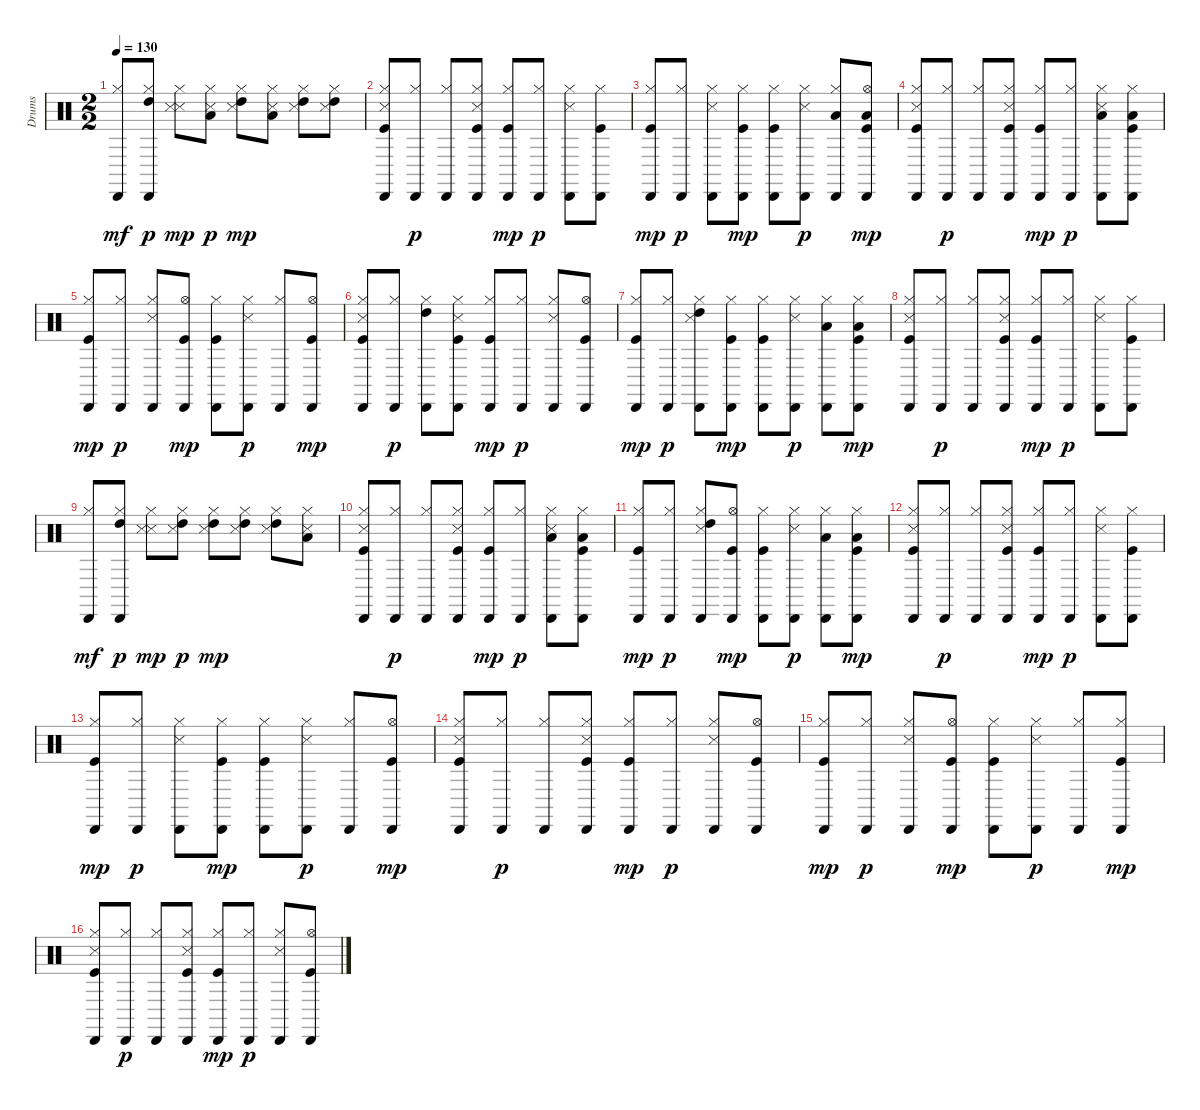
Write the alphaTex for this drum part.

\track ("Drums" "Drums") {instrument percussion}
\staff {score}
\articulation defaults
\ts (2 2)
\tempo 130
\clef neutral
\ks c
("Hi-Hat (closed)" "Cabasa (hit)").8{dy mf} ("Hi-Hat (closed)" "High Tom (hit)" "Cabasa (hit)").8{dy p} ("Snare (side stick) 3" "Snare (side stick) 3" "Hi-Hat (closed)").8{dy mp} ("Snare (side stick) 3" "Hi-Hat (closed)" "Low Tom (hit)").8{dy p} ("Snare (side stick) 3" "Hi-Hat (closed)" "High Tom (hit)").8{dy mp} ("Snare (side stick) 3" "Hi-Hat (closed)" "Low Tom (hit)").8 ("Snare (side stick) 3" "Hi-Hat (closed)" "High Tom (hit)").8 ("Snare (side stick) 3" "Hi-Hat (closed)" "High Tom (hit)").8 |
("Kick (hit)" "Snare (side stick) 3" "Hi-Hat (closed)" "Cabasa (hit)").8 ("Hi-Hat (closed)" "Cabasa (hit)").8{dy p} ("Hi-Hat (closed)" "Cabasa (hit)").8 ("Kick (hit)" "Snare (side stick) 3" "Hi-Hat (closed)" "Cabasa (hit)").8 ("Kick (hit)" "Hi-Hat (closed)" "Cabasa (hit)").8{dy mp} ("Hi-Hat (closed)" "Cabasa (hit)").8{dy p} ("Snare (side stick) 3" "Hi-Hat (closed)" "Cabasa (hit)").8 ("Kick (hit)" "Hi-Hat (closed)" "Cabasa (hit)").8 |
("Kick (hit)" "Hi-Hat (closed)" "Cabasa (hit)").8{dy mp} ("Hi-Hat (closed)" "Cabasa (hit)").8{dy p} ("Snare (side stick) 3" "Hi-Hat (closed)" "Cabasa (hit)").8 ("Kick (hit)" "Hi-Hat (closed)" "Cabasa (hit)").8{dy mp} ("Kick (hit)" "Hi-Hat (closed)" "Cabasa (hit)").8 ("Snare (side stick) 3" "Hi-Hat (closed)" "Cabasa (hit)").8{dy p} ("Hi-Hat (closed)" "Low Tom (hit)" "Cabasa (hit)").8 ("Kick (hit)" "Low Tom (hit)" "Hi-Hat (open)" "Cabasa (hit)").8{dy mp} |
("Kick (hit)" "Snare (side stick) 3" "Hi-Hat (closed)" "Cabasa (hit)").8 ("Hi-Hat (closed)" "Cabasa (hit)").8{dy p} ("Hi-Hat (closed)" "Cabasa (hit)").8 ("Kick (hit)" "Snare (side stick) 3" "Hi-Hat (closed)" "Cabasa (hit)").8 ("Kick (hit)" "Hi-Hat (closed)" "Cabasa (hit)").8{dy mp} ("Hi-Hat (closed)" "Cabasa (hit)").8{dy p} ("Snare (side stick) 3" "Hi-Hat (closed)" "Low Tom (hit)" "Cabasa (hit)").8 ("Kick (hit)" "Hi-Hat (closed)" "Low Tom (hit)" "Cabasa (hit)").8 |
("Kick (hit)" "Hi-Hat (closed)" "Cabasa (hit)").8{dy mp} ("Hi-Hat (closed)" "Cabasa (hit)").8{dy p} ("Snare (side stick) 3" "Hi-Hat (closed)" "Cabasa (hit)").8 ("Kick (hit)" "Hi-Hat (open)" "Cabasa (hit)").8{dy mp} ("Kick (hit)" "Hi-Hat (closed)" "Cabasa (hit)").8 ("Snare (side stick) 3" "Hi-Hat (closed)" "Cabasa (hit)").8{dy p} ("Hi-Hat (closed)" "Cabasa (hit)").8 ("Kick (hit)" "Hi-Hat (open)" "Cabasa (hit)").8{dy mp} |
("Kick (hit)" "Snare (side stick) 3" "Hi-Hat (closed)" "Cabasa (hit)").8 ("Hi-Hat (closed)" "Cabasa (hit)").8{dy p} ("Hi-Hat (closed)" "High Tom (hit)" "Cabasa (hit)").8 ("Kick (hit)" "Snare (side stick) 3" "Hi-Hat (closed)" "Cabasa (hit)").8 ("Kick (hit)" "Hi-Hat (closed)" "Cabasa (hit)").8{dy mp} ("Hi-Hat (closed)" "Cabasa (hit)").8{dy p} ("Snare (side stick) 3" "Hi-Hat (closed)" "Cabasa (hit)").8 ("Kick (hit)" "Hi-Hat (open)" "Cabasa (hit)").8 |
("Kick (hit)" "Hi-Hat (closed)" "Cabasa (hit)").8{dy mp} ("Hi-Hat (closed)" "Cabasa (hit)").8{dy p} ("Snare (side stick) 3" "Hi-Hat (closed)" "High Tom (hit)" "Cabasa (hit)").8 ("Kick (hit)" "Hi-Hat (closed)" "Cabasa (hit)").8{dy mp} ("Kick (hit)" "Hi-Hat (closed)" "Cabasa (hit)").8 ("Snare (side stick) 3" "Hi-Hat (closed)" "Cabasa (hit)").8{dy p} ("Hi-Hat (closed)" "Low Tom (hit)" "Cabasa (hit)").8 ("Kick (hit)" "Hi-Hat (closed)" "Low Tom (hit)" "Cabasa (hit)").8{dy mp} |
("Kick (hit)" "Snare (side stick) 3" "Hi-Hat (closed)" "Cabasa (hit)").8 ("Hi-Hat (closed)" "Cabasa (hit)").8{dy p} ("Hi-Hat (closed)" "Cabasa (hit)").8 ("Kick (hit)" "Snare (side stick) 3" "Hi-Hat (closed)" "Cabasa (hit)").8 ("Kick (hit)" "Hi-Hat (closed)" "Cabasa (hit)").8{dy mp} ("Hi-Hat (closed)" "Cabasa (hit)").8{dy p} ("Snare (side stick) 3" "Hi-Hat (closed)" "Cabasa (hit)").8 ("Kick (hit)" "Hi-Hat (closed)" "Cabasa (hit)").8 |
("Hi-Hat (closed)" "Cabasa (hit)").8{dy mf} ("Hi-Hat (closed)" "High Tom (hit)" "Cabasa (hit)").8{dy p} ("Snare (side stick) 3" "Snare (side stick) 3" "Hi-Hat (closed)").8{dy mp} ("Snare (side stick) 3" "Hi-Hat (closed)" "High Tom (hit)").8{dy p} ("Snare (side stick) 3" "Hi-Hat (closed)" "High Tom (hit)").8{dy mp} ("Snare (side stick) 3" "Hi-Hat (closed)" "High Tom (hit)").8 ("Snare (side stick) 3" "Hi-Hat (closed)" "High Tom (hit)").8 ("Snare (side stick) 3" "Hi-Hat (closed)" "Low Tom (hit)").8 |
("Kick (hit)" "Snare (side stick) 3" "Hi-Hat (closed)" "Cabasa (hit)").8 ("Hi-Hat (closed)" "Cabasa (hit)").8{dy p} ("Hi-Hat (closed)" "Cabasa (hit)").8 ("Kick (hit)" "Snare (side stick) 3" "Hi-Hat (closed)" "Cabasa (hit)").8 ("Kick (hit)" "Hi-Hat (closed)" "Cabasa (hit)").8{dy mp} ("Hi-Hat (closed)" "Cabasa (hit)").8{dy p} ("Snare (side stick) 3" "Hi-Hat (closed)" "Low Tom (hit)" "Cabasa (hit)").8 ("Kick (hit)" "Hi-Hat (closed)" "Low Tom (hit)" "Cabasa (hit)").8 |
("Kick (hit)" "Hi-Hat (closed)" "Cabasa (hit)").8{dy mp} ("Hi-Hat (closed)" "Cabasa (hit)").8{dy p} ("Snare (side stick) 3" "Hi-Hat (closed)" "High Tom (hit)" "Cabasa (hit)").8 ("Kick (hit)" "Hi-Hat (open)" "Cabasa (hit)").8{dy mp} ("Kick (hit)" "Hi-Hat (closed)" "Cabasa (hit)").8 ("Snare (side stick) 3" "Hi-Hat (closed)" "Cabasa (hit)").8{dy p} ("Hi-Hat (closed)" "Low Tom (hit)" "Cabasa (hit)").8 ("Kick (hit)" "Hi-Hat (closed)" "Low Tom (hit)" "Cabasa (hit)").8{dy mp} |
("Kick (hit)" "Snare (side stick) 3" "Hi-Hat (closed)" "Cabasa (hit)").8 ("Hi-Hat (closed)" "Cabasa (hit)").8{dy p} ("Hi-Hat (closed)" "Cabasa (hit)").8 ("Kick (hit)" "Snare (side stick) 3" "Hi-Hat (closed)" "Cabasa (hit)").8 ("Kick (hit)" "Hi-Hat (closed)" "Cabasa (hit)").8{dy mp} ("Hi-Hat (closed)" "Cabasa (hit)").8{dy p} ("Snare (side stick) 3" "Hi-Hat (closed)" "Cabasa (hit)").8 ("Kick (hit)" "Hi-Hat (closed)" "Cabasa (hit)").8 |
("Kick (hit)" "Hi-Hat (closed)" "Cabasa (hit)").8{dy mp} ("Hi-Hat (closed)" "Cabasa (hit)").8{dy p} ("Snare (side stick) 3" "Hi-Hat (closed)" "Cabasa (hit)").8 ("Kick (hit)" "Hi-Hat (closed)" "Cabasa (hit)").8{dy mp} ("Kick (hit)" "Hi-Hat (closed)" "Cabasa (hit)").8 ("Snare (side stick) 3" "Hi-Hat (closed)" "Cabasa (hit)").8{dy p} ("Hi-Hat (closed)" "Cabasa (hit)").8 ("Kick (hit)" "Hi-Hat (open)" "Cabasa (hit)").8{dy mp} |
("Kick (hit)" "Snare (side stick) 3" "Hi-Hat (closed)" "Cabasa (hit)").8 ("Hi-Hat (closed)" "Cabasa (hit)").8{dy p} ("Hi-Hat (closed)" "Cabasa (hit)").8 ("Kick (hit)" "Snare (side stick) 3" "Hi-Hat (closed)" "Cabasa (hit)").8 ("Kick (hit)" "Hi-Hat (closed)" "Cabasa (hit)").8{dy mp} ("Hi-Hat (closed)" "Cabasa (hit)").8{dy p} ("Snare (side stick) 3" "Hi-Hat (closed)" "Cabasa (hit)").8 ("Kick (hit)" "Hi-Hat (open)" "Cabasa (hit)").8 |
("Kick (hit)" "Hi-Hat (closed)" "Cabasa (hit)").8{dy mp} ("Hi-Hat (closed)" "Cabasa (hit)").8{dy p} ("Snare (side stick) 3" "Hi-Hat (closed)" "Cabasa (hit)").8 ("Kick (hit)" "Hi-Hat (open)" "Cabasa (hit)").8{dy mp} ("Kick (hit)" "Hi-Hat (closed)" "Cabasa (hit)").8 ("Snare (side stick) 3" "Hi-Hat (closed)" "Cabasa (hit)").8{dy p} ("Hi-Hat (closed)" "Cabasa (hit)").8 ("Kick (hit)" "Hi-Hat (closed)" "Cabasa (hit)").8{dy mp} |
("Kick (hit)" "Snare (side stick) 3" "Hi-Hat (closed)" "Cabasa (hit)").8 ("Hi-Hat (closed)" "Cabasa (hit)").8{dy p} ("Hi-Hat (closed)" "Cabasa (hit)").8 ("Kick (hit)" "Snare (side stick) 3" "Hi-Hat (closed)" "Cabasa (hit)").8 ("Kick (hit)" "Hi-Hat (closed)" "Cabasa (hit)").8{dy mp} ("Hi-Hat (closed)" "Cabasa (hit)").8{dy p} ("Snare (side stick) 3" "Hi-Hat (closed)" "Cabasa (hit)").8 ("Kick (hit)" "Hi-Hat (open)" "Cabasa (hit)").8
